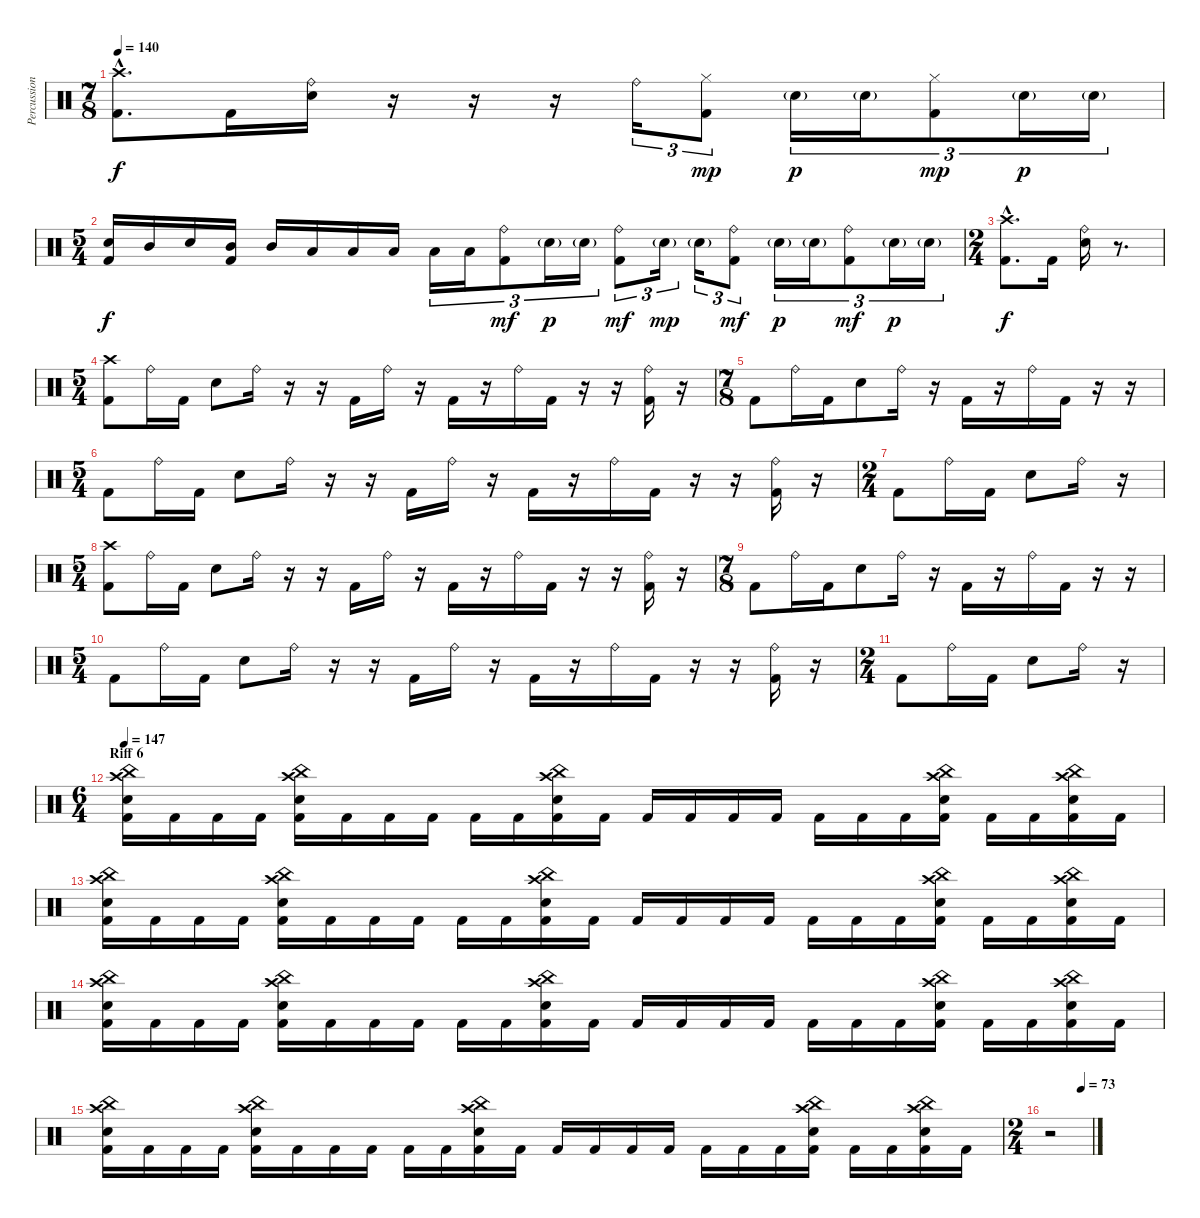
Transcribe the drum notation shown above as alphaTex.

\track ("Percussion" "Percussion") {instrument percussion}
\staff {score}
\articulation defaults
\ts (7 8)
\tempo 140
\clef neutral
\ks c
("Crash high (hit)"{hac} "Kick (hit) 2"{hac}).8{d dy f} "Kick (hit) 2".16 ("Ride (bell)" "Electric Snare (hit)").16 r.16 r.16 r.16 "Ride (bell)".16{tu (3 2)} ("Hi-Hat (closed)" "Kick (hit) 2").8{tu (3 2) dy mp} "Electric Snare (hit)"{g}.16{tu (3 2) dy p} "Electric Snare (hit)"{g}.16{tu (3 2)} ("Hi-Hat (closed)" "Kick (hit) 2").8{tu (3 2) dy mp} "Electric Snare (hit)"{g}.16{tu (3 2) dy p} "Electric Snare (hit)"{g}.16{tu (3 2)} |
\ts (5 4)
("Electric Snare (hit)" "Kick (hit) 2").16{dy f} "Mid Tom (hit)".16 "Electric Snare (hit)".16 ("Mid Tom (hit)" "Kick (hit) 2").16 "Mid Tom (hit)".16 "Low Tom (hit)".16 "Low Tom (hit)".16 "Low Floor Tom (hit)".16 "Low Floor Tom (hit)".16{tu (3 2)} "Low Floor Tom (hit)".16{tu (3 2)} ("Ride (bell)" "Kick (hit) 2").8{tu (3 2) dy mf} "Electric Snare (hit)"{g}.16{tu (3 2) dy p} "Electric Snare (hit)"{g}.16{tu (3 2)} ("Ride (bell)" "Kick (hit) 2").8{tu (3 2) dy mf} "Electric Snare (hit)"{g}.16{tu (3 2) dy mp} "Electric Snare (hit)"{g}.16{tu (3 2)} ("Ride (bell)" "Kick (hit) 2").8{tu (3 2) dy mf} "Electric Snare (hit)"{g}.16{tu (3 2) dy p} "Electric Snare (hit)"{g}.16{tu (3 2)} ("Ride (bell)" "Kick (hit) 2").8{tu (3 2) dy mf} "Electric Snare (hit)"{g}.16{tu (3 2) dy p} "Electric Snare (hit)"{g}.16{tu (3 2)} |
\ts (2 4)
("Crash high (hit)"{hac} "Kick (hit) 2"{hac}).8{d dy f} "Kick (hit) 2".16 ("Ride (bell)" "Electric Snare (hit)").16 r.8{d} |
\ts (5 4)
("Crash high (hit)" "Kick (hit) 2").8 "Ride (bell)".16 "Kick (hit) 2".16 "Electric Snare (hit)".8 "Ride (bell)".16 r.16 r.16 "Kick (hit) 2".16 "Ride (bell)".16 r.16 "Kick (hit) 2".16 r.16 "Ride (bell)".16 "Kick (hit) 2".16 r.16 r.16 ("Ride (bell)" "Kick (hit) 2").16 r.16 |
\ts (7 8)
"Kick (hit) 2".8 "Ride (bell)".16 "Kick (hit) 2".16 "Electric Snare (hit)".8 "Ride (bell)".16 r.16 "Kick (hit) 2".16 r.16 "Ride (bell)".16 "Kick (hit) 2".16 r.16 r.16 |
\ts (5 4)
"Kick (hit) 2".8 "Ride (bell)".16 "Kick (hit) 2".16 "Electric Snare (hit)".8 "Ride (bell)".16 r.16 r.16 "Kick (hit) 2".16 "Ride (bell)".16 r.16 "Kick (hit) 2".16 r.16 "Ride (bell)".16 "Kick (hit) 2".16 r.16 r.16 ("Ride (bell)" "Kick (hit) 2").16 r.16 |
\ts (2 4)
"Kick (hit) 2".8 "Ride (bell)".16 "Kick (hit) 2".16 "Electric Snare (hit)".8 "Ride (bell)".16 r.16 |
\ts (5 4)
("Crash high (hit)" "Kick (hit) 2").8 "Ride (bell)".16 "Kick (hit) 2".16 "Electric Snare (hit)".8 "Ride (bell)".16 r.16 r.16 "Kick (hit) 2".16 "Ride (bell)".16 r.16 "Kick (hit) 2".16 r.16 "Ride (bell)".16 "Kick (hit) 2".16 r.16 r.16 ("Ride (bell)" "Kick (hit) 2").16 r.16 |
\ts (7 8)
"Kick (hit) 2".8 "Ride (bell)".16 "Kick (hit) 2".16 "Electric Snare (hit)".8 "Ride (bell)".16 r.16 "Kick (hit) 2".16 r.16 "Ride (bell)".16 "Kick (hit) 2".16 r.16 r.16 |
\ts (5 4)
"Kick (hit) 2".8 "Ride (bell)".16 "Kick (hit) 2".16 "Electric Snare (hit)".8 "Ride (bell)".16 r.16 r.16 "Kick (hit) 2".16 "Ride (bell)".16 r.16 "Kick (hit) 2".16 r.16 "Ride (bell)".16 "Kick (hit) 2".16 r.16 r.16 ("Ride (bell)" "Kick (hit) 2").16 r.16 |
\ts (2 4)
"Kick (hit) 2".8 "Ride (bell)".16 "Kick (hit) 2".16 "Electric Snare (hit)".8 "Ride (bell)".16 r.16 |
\ts (6 4)
\section ("" "Riff 6")
\tempo 147
("China (hit)" "Crash high (hit)" "Electric Snare (hit)" "Kick (hit) 2").16 "Kick (hit) 2".16 "Kick (hit) 2".16 "Kick (hit) 2".16 ("China (hit)" "Crash high (hit)" "Electric Snare (hit)" "Kick (hit) 2").16 "Kick (hit) 2".16 "Kick (hit) 2".16 "Kick (hit) 2".16 "Kick (hit) 2".16 "Kick (hit) 2".16 ("China (hit)" "Crash high (hit)" "Electric Snare (hit)" "Kick (hit) 2").16 "Kick (hit) 2".16 "Kick (hit) 2".16 "Kick (hit) 2".16 "Kick (hit) 2".16 "Kick (hit) 2".16 "Kick (hit) 2".16 "Kick (hit) 2".16 "Kick (hit) 2".16 ("China (hit)" "Crash high (hit)" "Electric Snare (hit)" "Kick (hit) 2").16 "Kick (hit) 2".16 "Kick (hit) 2".16 ("China (hit)" "Crash high (hit)" "Electric Snare (hit)" "Kick (hit) 2").16 "Kick (hit) 2".16 |
("China (hit)" "Crash high (hit)" "Electric Snare (hit)" "Kick (hit) 2").16 "Kick (hit) 2".16 "Kick (hit) 2".16 "Kick (hit) 2".16 ("China (hit)" "Crash high (hit)" "Electric Snare (hit)" "Kick (hit) 2").16 "Kick (hit) 2".16 "Kick (hit) 2".16 "Kick (hit) 2".16 "Kick (hit) 2".16 "Kick (hit) 2".16 ("China (hit)" "Crash high (hit)" "Electric Snare (hit)" "Kick (hit) 2").16 "Kick (hit) 2".16 "Kick (hit) 2".16 "Kick (hit) 2".16 "Kick (hit) 2".16 "Kick (hit) 2".16 "Kick (hit) 2".16 "Kick (hit) 2".16 "Kick (hit) 2".16 ("China (hit)" "Crash high (hit)" "Electric Snare (hit)" "Kick (hit) 2").16 "Kick (hit) 2".16 "Kick (hit) 2".16 ("China (hit)" "Crash high (hit)" "Electric Snare (hit)" "Kick (hit) 2").16 "Kick (hit) 2".16 |
("China (hit)" "Crash high (hit)" "Electric Snare (hit)" "Kick (hit) 2").16 "Kick (hit) 2".16 "Kick (hit) 2".16 "Kick (hit) 2".16 ("China (hit)" "Crash high (hit)" "Electric Snare (hit)" "Kick (hit) 2").16 "Kick (hit) 2".16 "Kick (hit) 2".16 "Kick (hit) 2".16 "Kick (hit) 2".16 "Kick (hit) 2".16 ("China (hit)" "Crash high (hit)" "Electric Snare (hit)" "Kick (hit) 2").16 "Kick (hit) 2".16 "Kick (hit) 2".16 "Kick (hit) 2".16 "Kick (hit) 2".16 "Kick (hit) 2".16 "Kick (hit) 2".16 "Kick (hit) 2".16 "Kick (hit) 2".16 ("China (hit)" "Crash high (hit)" "Electric Snare (hit)" "Kick (hit) 2").16 "Kick (hit) 2".16 "Kick (hit) 2".16 ("China (hit)" "Crash high (hit)" "Electric Snare (hit)" "Kick (hit) 2").16 "Kick (hit) 2".16 |
("China (hit)" "Crash high (hit)" "Electric Snare (hit)" "Kick (hit) 2").16 "Kick (hit) 2".16 "Kick (hit) 2".16 "Kick (hit) 2".16 ("China (hit)" "Crash high (hit)" "Electric Snare (hit)" "Kick (hit) 2").16 "Kick (hit) 2".16 "Kick (hit) 2".16 "Kick (hit) 2".16 "Kick (hit) 2".16 "Kick (hit) 2".16 ("China (hit)" "Crash high (hit)" "Electric Snare (hit)" "Kick (hit) 2").16 "Kick (hit) 2".16 "Kick (hit) 2".16 "Kick (hit) 2".16 "Kick (hit) 2".16 "Kick (hit) 2".16 "Kick (hit) 2".16 "Kick (hit) 2".16 "Kick (hit) 2".16 ("China (hit)" "Crash high (hit)" "Electric Snare (hit)" "Kick (hit) 2").16 "Kick (hit) 2".16 "Kick (hit) 2".16 ("China (hit)" "Crash high (hit)" "Electric Snare (hit)" "Kick (hit) 2").16 "Kick (hit) 2".16 |
\ts (2 4)
\tempo (73 0.75)
r.2
